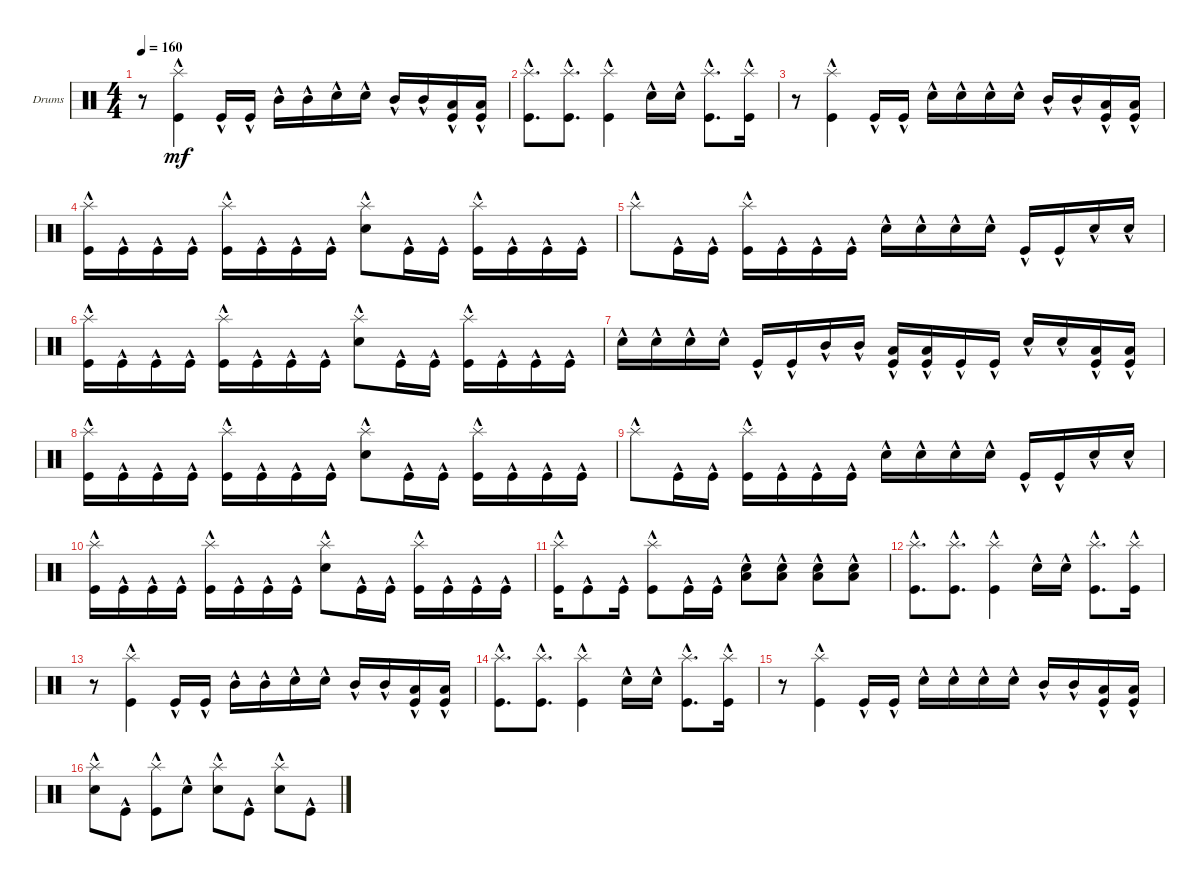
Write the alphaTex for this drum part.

\defaultSystemsLayout 4
\bracketExtendMode groupsimilarinstruments
\firstSystemTrackNameOrientation horizontal
\otherSystemsTrackNameOrientation horizontal
\track ("Drums" "Drums") {instrument percussion}
\staff {score}
\articulation defaults
\ts (4 4)
\tempo 160
\clef neutral
\ks c
r.8{dy mf} ("Kick (hit)"{hac} "Splash (hit)"{hac}).4 "Kick (hit)"{hac}.16 "Kick (hit)"{hac}.16 "Mid Tom (hit)"{hac}.16 "Mid Tom (hit)"{hac}.16 "Snare (hit) 2"{hac}.16 "Snare (hit) 2"{hac}.16 "Mid Tom (hit)"{hac}.16 "Mid Tom (hit)"{hac}.16 ("Low Tom (hit)"{hac} "Kick (hit)").16 ("Low Tom (hit)"{hac} "Kick (hit)").16 |
("Kick (hit)"{hac} "Splash (hit)"{hac}).8{d} ("Kick (hit)"{hac} "Splash (hit)"{hac}).8{d} ("Kick (hit)"{hac} "Splash (hit)"{hac}).4 "Snare (hit) 2"{hac}.16 "Snare (hit) 2"{hac}.16 ("Kick (hit)"{hac} "Splash (hit)"{hac}).8{d} ("Kick (hit)"{hac} "Splash (hit)"{hac}).16 |
r.8 ("Kick (hit)"{hac} "Splash (hit)"{hac}).4 "Kick (hit)"{hac}.16 "Kick (hit)"{hac}.16 "Snare (hit) 2"{hac}.16 "Snare (hit) 2"{hac}.16 "Snare (hit) 2"{hac}.16 "Snare (hit) 2"{hac}.16 "Mid Tom (hit)"{hac}.16 "Mid Tom (hit)"{hac}.16 ("Low Tom (hit)"{hac} "Kick (hit)").16 ("Low Tom (hit)"{hac} "Kick (hit)").16 |
("Kick (hit)"{hac} "Splash (hit)"{hac}).16 "Kick (hit)"{hac}.16 "Kick (hit)"{hac}.16 "Kick (hit)"{hac}.16 ("Kick (hit)"{hac} "Splash (hit)"{hac}).16 "Kick (hit)"{hac}.16 "Kick (hit)"{hac}.16 "Kick (hit)"{hac}.16 ("Snare (hit) 2"{hac} "Splash (hit)"{hac}).8 "Kick (hit)"{hac}.16 "Kick (hit)"{hac}.16 ("Kick (hit)"{hac} "Splash (hit)"{hac}).16 "Kick (hit)"{hac}.16 "Kick (hit)"{hac}.16 "Kick (hit)"{hac}.16 |
"Splash (hit)"{hac}.8 "Kick (hit)"{hac}.16 "Kick (hit)"{hac}.16 ("Kick (hit)"{hac} "Splash (hit)"{hac}).16 "Kick (hit)"{hac}.16 "Kick (hit)"{hac}.16 "Kick (hit)"{hac}.16 "Snare (hit) 2"{hac}.16 "Snare (hit) 2"{hac}.16 "Snare (hit) 2"{hac}.16 "Snare (hit) 2"{hac}.16 "Kick (hit)"{hac}.16 "Kick (hit)"{hac}.16 "Snare (hit) 2"{hac}.16 "Snare (hit) 2"{hac}.16 |
("Kick (hit)"{hac} "Splash (hit)"{hac}).16 "Kick (hit)"{hac}.16 "Kick (hit)"{hac}.16 "Kick (hit)"{hac}.16 ("Kick (hit)"{hac} "Splash (hit)"{hac}).16 "Kick (hit)"{hac}.16 "Kick (hit)"{hac}.16 "Kick (hit)"{hac}.16 ("Snare (hit) 2"{hac} "Splash (hit)"{hac}).8 "Kick (hit)"{hac}.16 "Kick (hit)"{hac}.16 ("Kick (hit)"{hac} "Splash (hit)"{hac}).16 "Kick (hit)"{hac}.16 "Kick (hit)"{hac}.16 "Kick (hit)"{hac}.16 |
"Snare (hit) 2"{hac}.16 "Snare (hit) 2"{hac}.16 "Snare (hit) 2"{hac}.16 "Snare (hit) 2"{hac}.16 "Kick (hit)"{hac}.16 "Kick (hit)"{hac}.16 "Mid Tom (hit)"{hac}.16 "Mid Tom (hit)"{hac}.16 ("Low Tom (hit)"{hac} "Kick (hit)").16 ("Low Tom (hit)"{hac} "Kick (hit)").16 "Kick (hit)"{hac}.16 "Kick (hit)"{hac}.16 "Snare (hit) 2"{hac}.16 "Snare (hit) 2"{hac}.16 ("Low Tom (hit)"{hac} "Kick (hit)").16 ("Low Tom (hit)"{hac} "Kick (hit)").16 |
("Kick (hit)"{hac} "Splash (hit)"{hac}).16 "Kick (hit)"{hac}.16 "Kick (hit)"{hac}.16 "Kick (hit)"{hac}.16 ("Kick (hit)"{hac} "Splash (hit)"{hac}).16 "Kick (hit)"{hac}.16 "Kick (hit)"{hac}.16 "Kick (hit)"{hac}.16 ("Snare (hit) 2"{hac} "Splash (hit)"{hac}).8 "Kick (hit)"{hac}.16 "Kick (hit)"{hac}.16 ("Kick (hit)"{hac} "Splash (hit)"{hac}).16 "Kick (hit)"{hac}.16 "Kick (hit)"{hac}.16 "Kick (hit)"{hac}.16 |
"Splash (hit)"{hac}.8 "Kick (hit)"{hac}.16 "Kick (hit)"{hac}.16 ("Kick (hit)"{hac} "Splash (hit)"{hac}).16 "Kick (hit)"{hac}.16 "Kick (hit)"{hac}.16 "Kick (hit)"{hac}.16 "Snare (hit) 2"{hac}.16 "Snare (hit) 2"{hac}.16 "Snare (hit) 2"{hac}.16 "Snare (hit) 2"{hac}.16 "Kick (hit)"{hac}.16 "Kick (hit)"{hac}.16 "Snare (hit) 2"{hac}.16 "Snare (hit) 2"{hac}.16 |
("Kick (hit)"{hac} "Splash (hit)"{hac}).16 "Kick (hit)"{hac}.16 "Kick (hit)"{hac}.16 "Kick (hit)"{hac}.16 ("Kick (hit)"{hac} "Splash (hit)"{hac}).16 "Kick (hit)"{hac}.16 "Kick (hit)"{hac}.16 "Kick (hit)"{hac}.16 ("Snare (hit) 2"{hac} "Splash (hit)"{hac}).8 "Kick (hit)"{hac}.16 "Kick (hit)"{hac}.16 ("Kick (hit)"{hac} "Splash (hit)"{hac}).16 "Kick (hit)"{hac}.16 "Kick (hit)"{hac}.16 "Kick (hit)"{hac}.16 |
("Kick (hit)"{hac} "Splash (hit)"{hac}).16 "Kick (hit)"{hac}.8 "Kick (hit)"{hac}.16 ("Kick (hit)"{hac} "Splash (hit)"{hac}).8 "Kick (hit)"{hac}.16 "Kick (hit)"{hac}.16 ("Snare (hit) 2"{hac} "Low Tom (hit)"{hac}).8 ("Snare (hit) 2"{hac} "Low Tom (hit)"{hac}).8 ("Snare (hit) 2"{hac} "Low Tom (hit)"{hac}).8 ("Snare (hit) 2"{hac} "Low Tom (hit)"{hac}).8 |
("Kick (hit)"{hac} "Splash (hit)"{hac}).8{d} ("Kick (hit)"{hac} "Splash (hit)"{hac}).8{d} ("Kick (hit)"{hac} "Splash (hit)"{hac}).4 "Snare (hit) 2"{hac}.16 "Snare (hit) 2"{hac}.16 ("Kick (hit)"{hac} "Splash (hit)"{hac}).8{d} ("Kick (hit)"{hac} "Splash (hit)"{hac}).16 |
r.8 ("Kick (hit)"{hac} "Splash (hit)"{hac}).4 "Kick (hit)"{hac}.16 "Kick (hit)"{hac}.16 "Mid Tom (hit)"{hac}.16 "Mid Tom (hit)"{hac}.16 "Snare (hit) 2"{hac}.16 "Snare (hit) 2"{hac}.16 "Mid Tom (hit)"{hac}.16 "Mid Tom (hit)"{hac}.16 ("Low Tom (hit)"{hac} "Kick (hit)").16 ("Low Tom (hit)"{hac} "Kick (hit)").16 |
("Kick (hit)"{hac} "Splash (hit)"{hac}).8{d} ("Kick (hit)"{hac} "Splash (hit)"{hac}).8{d} ("Kick (hit)"{hac} "Splash (hit)"{hac}).4 "Snare (hit) 2"{hac}.16 "Snare (hit) 2"{hac}.16 ("Kick (hit)"{hac} "Splash (hit)"{hac}).8{d} ("Kick (hit)"{hac} "Splash (hit)"{hac}).16 |
r.8 ("Kick (hit)"{hac} "Splash (hit)"{hac}).4 "Kick (hit)"{hac}.16 "Kick (hit)"{hac}.16 "Snare (hit) 2"{hac}.16 "Snare (hit) 2"{hac}.16 "Snare (hit) 2"{hac}.16 "Snare (hit) 2"{hac}.16 "Mid Tom (hit)"{hac}.16 "Mid Tom (hit)"{hac}.16 ("Low Tom (hit)"{hac} "Kick (hit)").16 ("Low Tom (hit)"{hac} "Kick (hit)").16 |
("Snare (hit) 2"{hac} "Splash (hit)"{hac}).8 "Kick (hit)"{hac}.8 ("Kick (hit)"{hac} "Splash (hit)"{hac}).8 "Snare (hit) 2"{hac}.8 ("Snare (hit) 2"{hac} "Splash (hit)"{hac}).8 "Kick (hit)"{hac}.8 ("Snare (hit) 2"{hac} "Splash (hit)"{hac}).8 "Kick (hit)"{hac}.8
